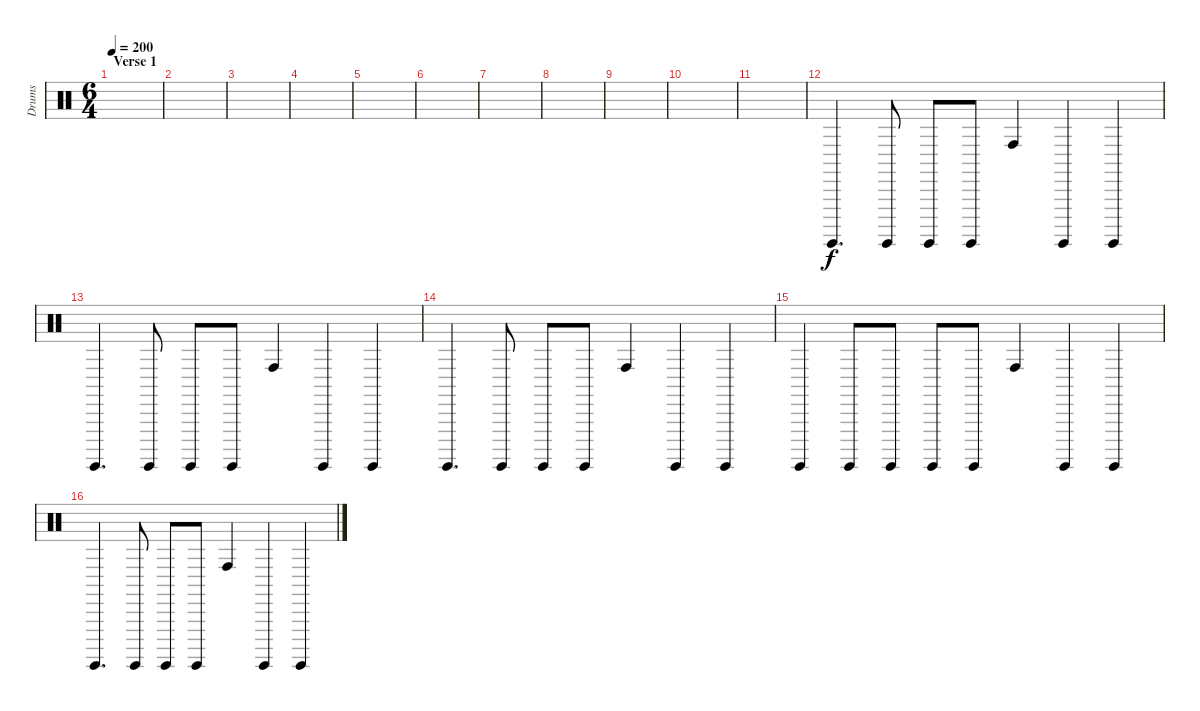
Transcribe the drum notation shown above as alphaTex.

\track ("Drums" "Drums") {instrument percussion}
\staff {score}
\articulation defaults
\ts (6 4)
\section ("" "Verse 1")
\tempo 200
\clef neutral
\ks c
|
|
|
|
|
|
|
|
|
|
|
"Surdo (hit)".4{d} "Surdo (hit)".8 "Surdo (hit)".8 "Surdo (hit)".8 "Conga high (hit)".4 "Surdo (hit)".4 "Surdo (hit)".4 |
"Surdo (hit)".4{d} "Surdo (hit)".8 "Surdo (hit)".8 "Surdo (hit)".8 "Conga high (hit)".4 "Surdo (hit)".4 "Surdo (hit)".4 |
"Surdo (hit)".4{d} "Surdo (hit)".8 "Surdo (hit)".8 "Surdo (hit)".8 "Conga high (hit)".4 "Surdo (hit)".4 "Surdo (hit)".4 |
"Surdo (hit)".4 "Surdo (hit)".8 "Surdo (hit)".8 "Surdo (hit)".8 "Surdo (hit)".8 "Conga high (hit)".4 "Surdo (hit)".4 "Surdo (hit)".4 |
"Surdo (hit)".4{d} "Surdo (hit)".8 "Surdo (hit)".8 "Surdo (hit)".8 "Conga high (hit)".4 "Surdo (hit)".4 "Surdo (hit)".4
